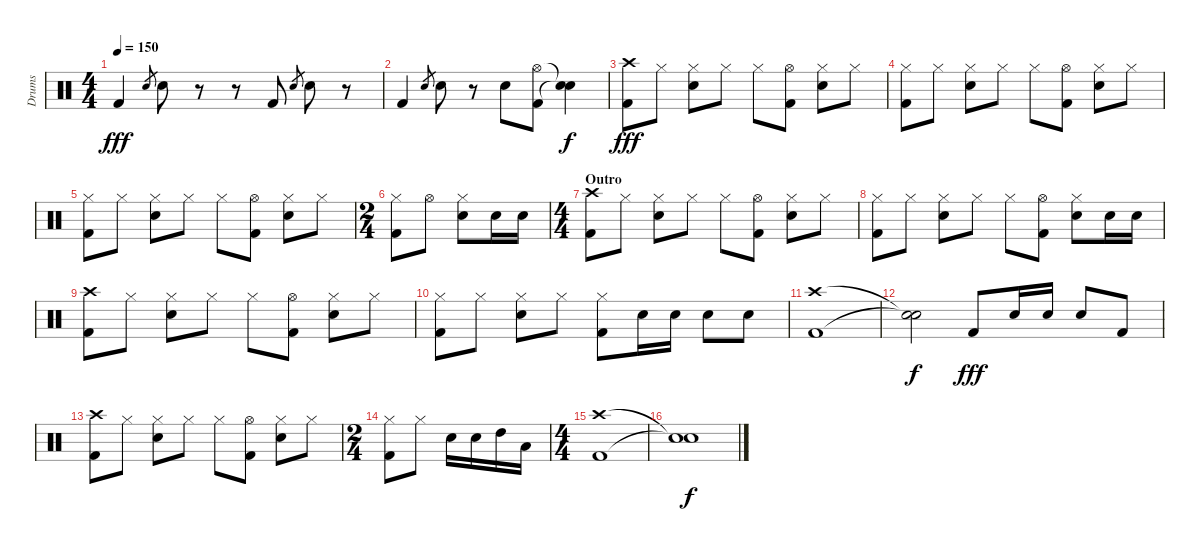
\track ("Drums" "Drums") {instrument percussion}
\staff {score}
\articulation defaults
\ts (4 4)
\tempo 150
\clef neutral
\ks c "Kick (hit) 2".4{dy fff} "Snare (hit) 2".8{gr} "Snare (hit) 2".8
r.8 r.8 "Kick (hit) 2".8 "Snare (hit) 2".8{gr} "Snare (hit) 2".8 r.8 |
"Kick (hit) 2".4 "Snare (hit) 2".8{gr} "Snare (hit) 2".8 r.8 "Snare (hit) 2".8 ("Hi-Hat (open)" "Kick (hit) 2").8 ("Snare (hit)"{t} "Snare (hit)"{t}).4{dy f} |
("Crash high (hit)" "Kick (hit) 2").8{dy fff} "Hi-Hat (closed)".8 ("Hi-Hat (closed)" "Snare (hit) 2").8 "Hi-Hat (closed)".8 "Hi-Hat (closed)".8 ("Hi-Hat (open)" "Kick (hit) 2").8 ("Hi-Hat (closed)" "Snare (hit) 2").8 "Hi-Hat (closed)".8 |
("Hi-Hat (closed)" "Kick (hit) 2").8 "Hi-Hat (closed)".8 ("Hi-Hat (closed)" "Snare (hit) 2").8 "Hi-Hat (closed)".8 "Hi-Hat (closed)".8 ("Hi-Hat (open)" "Kick (hit) 2").8 ("Hi-Hat (closed)" "Snare (hit) 2").8 "Hi-Hat (closed)".8 |
("Hi-Hat (closed)" "Kick (hit) 2").8 "Hi-Hat (closed)".8 ("Hi-Hat (closed)" "Snare (hit) 2").8 "Hi-Hat (closed)".8 "Hi-Hat (closed)".8 ("Hi-Hat (open)" "Kick (hit) 2").8 ("Hi-Hat (closed)" "Snare (hit) 2").8 "Hi-Hat (closed)".8 |
\ts (2 4)
("Hi-Hat (closed)" "Kick (hit) 2").8 "Hi-Hat (open)".8 ("Hi-Hat (closed)" "Snare (hit) 2").8 "Snare (hit) 2".16 "Snare (hit) 2".16 |
\ts (4 4)
\section ("" "Outro")
("Crash high (hit)" "Kick (hit) 2").8 "Hi-Hat (closed)".8 ("Hi-Hat (closed)" "Snare (hit) 2").8 "Hi-Hat (closed)".8 "Hi-Hat (closed)".8 ("Hi-Hat (open)" "Kick (hit) 2").8 ("Hi-Hat (closed)" "Snare (hit) 2").8 "Hi-Hat (closed)".8 |
("Hi-Hat (closed)" "Kick (hit) 2").8 "Hi-Hat (closed)".8 ("Hi-Hat (closed)" "Snare (hit) 2").8 "Hi-Hat (closed)".8 "Hi-Hat (closed)".8 ("Hi-Hat (open)" "Kick (hit) 2").8 ("Hi-Hat (closed)" "Snare (hit) 2").8 "Snare (hit) 2".16 "Snare (hit) 2".16 |
("Crash high (hit)" "Kick (hit) 2").8 "Hi-Hat (closed)".8 ("Hi-Hat (closed)" "Snare (hit) 2").8 "Hi-Hat (closed)".8 "Hi-Hat (closed)".8 ("Hi-Hat (open)" "Kick (hit) 2").8 ("Hi-Hat (closed)" "Snare (hit) 2").8 "Hi-Hat (closed)".8 |
("Hi-Hat (closed)" "Kick (hit) 2").8 "Hi-Hat (closed)".8 ("Hi-Hat (closed)" "Snare (hit) 2").8 "Hi-Hat (closed)".8 ("Hi-Hat (closed)" "Kick (hit) 2").8 "Snare (hit) 2".16 "Snare (hit) 2".16 "Snare (hit) 2".8 "Snare (hit) 2".8 |
("Crash high (hit)" "Kick (hit) 2").1 |
("Snare (hit)"{t} "Snare (hit)"{t}).2{dy f} "Kick (hit) 2".8{dy fff} "Snare (hit) 2".16 "Snare (hit) 2".16 "Snare (hit) 2".8 "Kick (hit) 2".8 |
("Crash high (hit)" "Kick (hit) 2").8 "Hi-Hat (closed)".8 ("Hi-Hat (closed)" "Snare (hit) 2").8 "Hi-Hat (closed)".8 "Hi-Hat (closed)".8 ("Hi-Hat (open)" "Kick (hit) 2").8 ("Hi-Hat (closed)" "Snare (hit) 2").8 "Hi-Hat (closed)".8 |
\ts (2 4)
("Hi-Hat (closed)" "Kick (hit) 2").8 "Hi-Hat (closed)".8 "Snare (hit) 2".16 "Snare (hit) 2".16 "High Tom (hit)".16 "Low Tom (hit)".16 |
\ts (4 4)
("Crash high (hit)" "Kick (hit) 2").1 |
("Snare (hit)"{t} "Snare (hit)"{t}).1{dy f}
